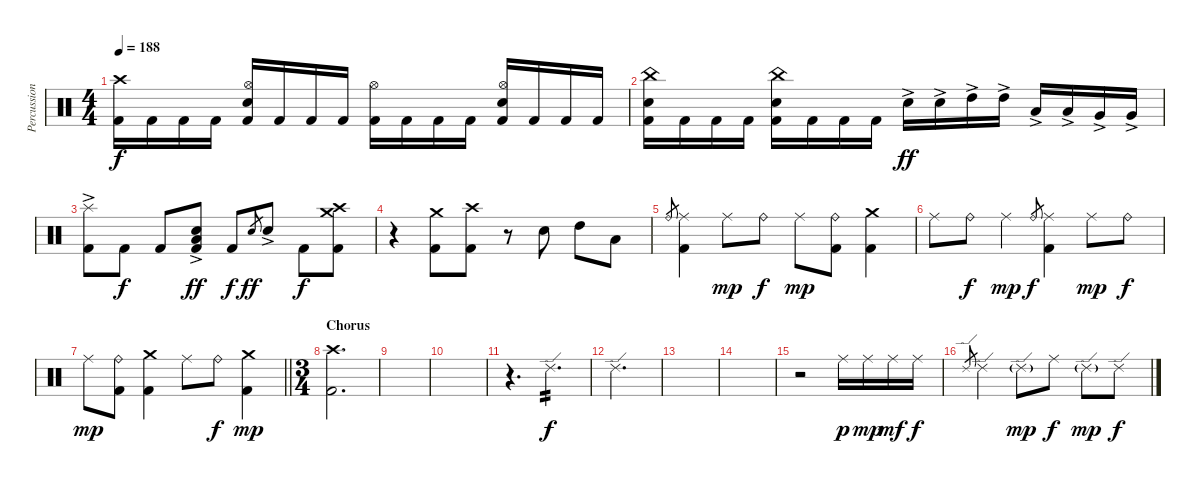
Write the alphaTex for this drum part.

\track ("Percussion" "Percussion") {instrument percussion}
\staff {score}
\articulation defaults
\ts (4 4)
\tempo 188
\clef neutral
\ks c
("Crash high (hit)" "Kick (hit) 2").16{dy f} "Kick (hit) 2".16 "Kick (hit) 2".16 "Kick (hit) 2".16 ("Hi-Hat (open)" "Electric Snare (hit)" "Kick (hit) 2").16 "Kick (hit) 2".16 "Kick (hit) 2".16 "Kick (hit) 2".16 ("Hi-Hat (open)" "Kick (hit) 2").16 "Kick (hit) 2".16 "Kick (hit) 2".16 "Kick (hit) 2".16 ("Hi-Hat (open)" "Electric Snare (hit)" "Kick (hit) 2").16 "Kick (hit) 2".16 "Kick (hit) 2".16 "Kick (hit) 2".16 |
("China (hit)" "Electric Snare (hit)" "Kick (hit) 2").16 "Kick (hit) 2".16 "Kick (hit) 2".16 "Kick (hit) 2".16 ("China (hit)" "Electric Snare (hit)" "Kick (hit) 2").16 "Kick (hit) 2".16 "Kick (hit) 2".16 "Kick (hit) 2".16 "Electric Snare (hit)"{ac}.16{dy ff} "Electric Snare (hit)"{ac}.16 "High Tom (hit)"{ac}.16 "High Tom (hit)"{ac}.16 "Low Tom (hit)"{ac}.16 "Low Tom (hit)"{ac}.16 "Very Low Tom (hit)"{ac}.16 "Very Low Tom (hit)"{ac}.16 |
("Splash (hit)" "Kick (hit) 2"{ac}).8 "Kick (hit) 2".8{dy f} "Kick (hit) 2".8 ("Low Floor Tom (hit)"{ac} "Electric Snare (hit)"{ac} "Kick (hit) 2").8{dy ff} "Kick (hit) 2".8{dy f} "Electric Snare (hit)".8{gr dy ff} "Electric Snare (hit)"{ac}.8 "Kick (hit) 2".8{dy f} ("Crash high (hit)" "Crash medium (hit)" "Kick (hit) 2").8 |
r.4 ("Crash medium (hit)" "Kick (hit) 2").8 ("Crash high (hit)" "Kick (hit) 2").8 r.8 "Electric Snare (hit)".8 "High Tom (hit)".8 "Low Tom (hit)".8 |
"Ride (bell)".8{gr} ("Ride (middle)" "Kick (hit) 2").4 "Ride (middle)".8{dy mp} "Ride (bell)".8{dy f} "Ride (middle)".8{dy mp} ("Ride (bell)" "Kick (hit) 2").8 ("Crash medium (hit)" "Kick (hit) 2").4 |
"Ride (middle)".8 "Ride (bell)".8{dy f} "Ride (middle)".4{dy mp} "Ride (bell)".8{gr dy f} ("Ride (middle)" "Kick (hit) 2").4 "Ride (middle)".8{dy mp} "Ride (bell)".8{dy f} |
\barLineRight lightlight "Ride (middle)".8{dy mp}
("Ride (bell)" "Kick (hit) 2").8 ("Crash medium (hit)" "Kick (hit) 2").4 "Ride (middle)".8 "Ride (bell)".8{dy f} ("Crash medium (hit)" "Kick (hit) 2").4{dy mp} |
\ts (3 4)
\section ("" "Chorus")
("Crash high (hit)" "Kick (hit) 2").2{d} |
|
|
r.4{d volume 0} "Ride (edge) 2".4{d tp 2 dy f volume 14} |
"Ride (edge) 2".2{d} |
|
|
r.2 "Ride (middle)".16{dy p} "Ride (middle)".16{dy mp} "Ride (middle)".16{dy mf} "Ride (middle)".16{dy f} |
"Ride (edge) 2".8{gr} "Ride (edge) 2".4 "Ride (edge) 2"{g}.8{dy mp} "Ride (middle)".8{dy f} "Ride (edge) 2"{g}.8{dy mp} "Ride (edge) 2".8{dy f}
